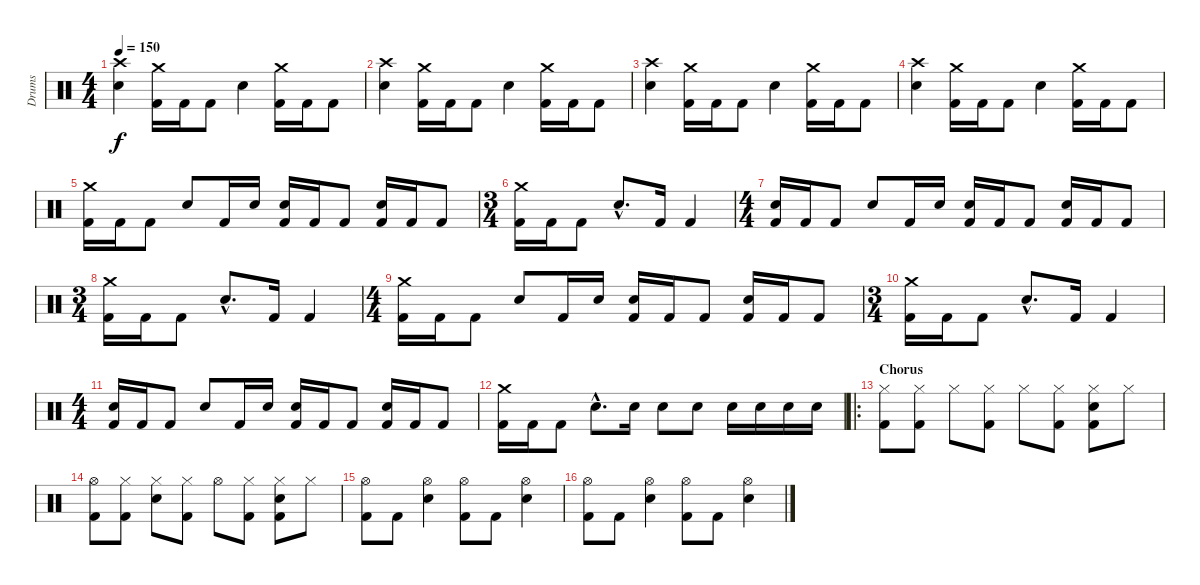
\track ("Drums" "Drums") {instrument percussion}
\staff {score}
\articulation defaults
\ts (4 4)
\tempo 150
\clef neutral
\ks c
("Crash high (hit)" "Electric Snare (hit)").4{dy f} ("Crash medium (hit)" "Kick (hit) 2").16 "Kick (hit) 2".16 "Kick (hit) 2".8 "Electric Snare (hit)".4 ("Crash medium (hit)" "Kick (hit) 2").16 "Kick (hit) 2".16 "Kick (hit) 2".8 |
("Crash high (hit)" "Electric Snare (hit)").4 ("Crash medium (hit)" "Kick (hit) 2").16 "Kick (hit) 2".16 "Kick (hit) 2".8 "Electric Snare (hit)".4 ("Crash medium (hit)" "Kick (hit) 2").16 "Kick (hit) 2".16 "Kick (hit) 2".8 |
("Crash high (hit)" "Electric Snare (hit)").4 ("Crash medium (hit)" "Kick (hit) 2").16 "Kick (hit) 2".16 "Kick (hit) 2".8 "Electric Snare (hit)".4 ("Crash medium (hit)" "Kick (hit) 2").16 "Kick (hit) 2".16 "Kick (hit) 2".8 |
("Crash high (hit)" "Electric Snare (hit)").4 ("Crash medium (hit)" "Kick (hit) 2").16 "Kick (hit) 2".16 "Kick (hit) 2".8 "Electric Snare (hit)".4 ("Crash medium (hit)" "Kick (hit) 2").16 "Kick (hit) 2".16 "Kick (hit) 2".8 |
("Crash medium (hit)" "Kick (hit) 2").16 "Kick (hit) 2".16 "Kick (hit) 2".8 "Electric Snare (hit)".8 "Kick (hit) 2".16 "Electric Snare (hit)".16 ("Electric Snare (hit)" "Kick (hit) 2").16 "Kick (hit) 2".16 "Kick (hit) 2".8 ("Electric Snare (hit)" "Kick (hit) 2").16 "Kick (hit) 2".16 "Kick (hit) 2".8 |
\ts (3 4)
("Crash medium (hit)" "Kick (hit) 2").16 "Kick (hit) 2".16 "Kick (hit) 2".8 "Electric Snare (hit)"{hac}.8{d} "Kick (hit) 2".16 "Kick (hit) 2".4 |
\ts (4 4)
("Electric Snare (hit)" "Kick (hit) 2").16 "Kick (hit) 2".16 "Kick (hit) 2".8 "Electric Snare (hit)".8 "Kick (hit) 2".16 "Electric Snare (hit)".16 ("Electric Snare (hit)" "Kick (hit) 2").16 "Kick (hit) 2".16 "Kick (hit) 2".8 ("Electric Snare (hit)" "Kick (hit) 2").16 "Kick (hit) 2".16 "Kick (hit) 2".8 |
\ts (3 4)
("Crash medium (hit)" "Kick (hit) 2").16 "Kick (hit) 2".16 "Kick (hit) 2".8 "Electric Snare (hit)"{hac}.8{d} "Kick (hit) 2".16 "Kick (hit) 2".4 |
\ts (4 4)
("Crash medium (hit)" "Kick (hit) 2").16 "Kick (hit) 2".16 "Kick (hit) 2".8 "Electric Snare (hit)".8 "Kick (hit) 2".16 "Electric Snare (hit)".16 ("Electric Snare (hit)" "Kick (hit) 2").16 "Kick (hit) 2".16 "Kick (hit) 2".8 ("Electric Snare (hit)" "Kick (hit) 2").16 "Kick (hit) 2".16 "Kick (hit) 2".8 |
\ts (3 4)
("Crash medium (hit)" "Kick (hit) 2").16 "Kick (hit) 2".16 "Kick (hit) 2".8 "Electric Snare (hit)"{hac}.8{d} "Kick (hit) 2".16 "Kick (hit) 2".4 |
\ts (4 4)
("Electric Snare (hit)" "Kick (hit) 2").16 "Kick (hit) 2".16 "Kick (hit) 2".8 "Electric Snare (hit)".8 "Kick (hit) 2".16 "Electric Snare (hit)".16 ("Electric Snare (hit)" "Kick (hit) 2").16 "Kick (hit) 2".16 "Kick (hit) 2".8 ("Electric Snare (hit)" "Kick (hit) 2").16 "Kick (hit) 2".16 "Kick (hit) 2".8 |
("Crash medium (hit)" "Kick (hit) 2").16 "Kick (hit) 2".16 "Kick (hit) 2".8 "Electric Snare (hit)"{hac}.8{d} "Electric Snare (hit)".16 "Electric Snare (hit)".8 "Electric Snare (hit)".8 "Electric Snare (hit)".16 "Electric Snare (hit)".16 "Electric Snare (hit)".16 "Electric Snare (hit)".16 |
\ro
\section ("" "Chorus")
("Hi-Hat (closed)" "Kick (hit) 2").8 ("Hi-Hat (closed)" "Kick (hit) 2").8 "Hi-Hat (closed)".8 ("Hi-Hat (closed)" "Kick (hit) 2").8 "Hi-Hat (closed)".8 ("Hi-Hat (closed)" "Kick (hit) 2").8 ("Hi-Hat (closed)" "Electric Snare (hit)" "Kick (hit) 2").8 "Hi-Hat (closed)".8 |
("Hi-Hat (open)" "Kick (hit) 2").8 ("Hi-Hat (closed)" "Kick (hit) 2").8 ("Hi-Hat (closed)" "Electric Snare (hit)").8 ("Hi-Hat (closed)" "Kick (hit) 2").8 "Hi-Hat (open)".8 ("Hi-Hat (closed)" "Kick (hit) 2").8 ("Hi-Hat (closed)" "Electric Snare (hit)" "Kick (hit) 2").8 "Hi-Hat (closed)".8 |
("Hi-Hat (open)" "Kick (hit) 2").8 "Kick (hit) 2".8 ("Hi-Hat (open)" "Electric Snare (hit)").4 ("Hi-Hat (open)" "Kick (hit) 2").8 "Kick (hit) 2".8 ("Hi-Hat (open)" "Electric Snare (hit)").4 |
("Hi-Hat (open)" "Kick (hit) 2").8 "Kick (hit) 2".8 ("Hi-Hat (open)" "Electric Snare (hit)").4 ("Hi-Hat (open)" "Kick (hit) 2").8 "Kick (hit) 2".8 ("Hi-Hat (open)" "Electric Snare (hit)").4
